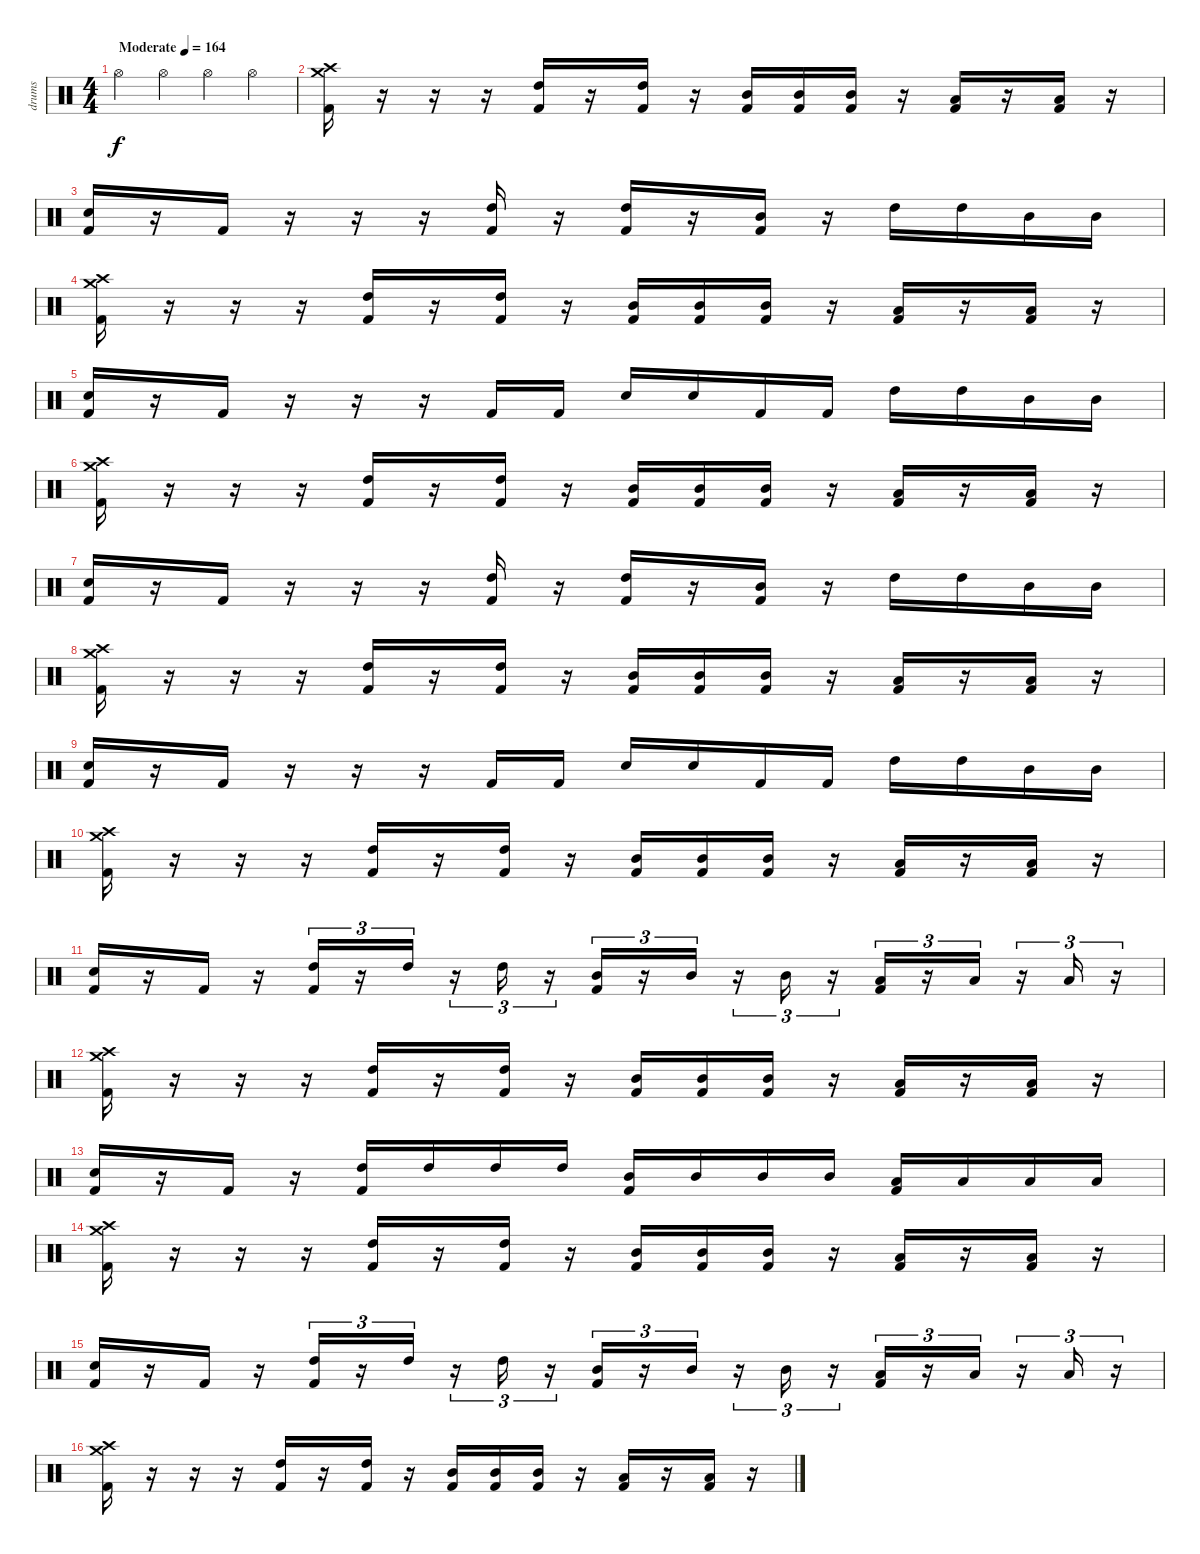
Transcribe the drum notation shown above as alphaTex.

\track ("drums" "drums") {instrument percussion}
\staff {score}
\articulation defaults
\ts (4 4)
\tempo (164 "Moderate")
\clef neutral
\ks c "Hi-Hat (open)".4{dy f} "Hi-Hat (open)".4 "Hi-Hat (open)".4 "Hi-Hat (open)".4
|
("Crash medium (hit)" "Crash high (hit)" "Kick (hit) 2").16 r.16 r.16 r.16 ("High Tom (hit)" "Kick (hit) 2").16 r.16 ("High Tom (hit)" "Kick (hit) 2").16 r.16 ("Mid Tom (hit)" "Kick (hit) 2").16 ("Mid Tom (hit)" "Kick (hit) 2").16 ("Mid Tom (hit)" "Kick (hit) 2").16 r.16 ("Low Floor Tom (hit)" "Kick (hit) 2").16 r.16 ("Low Floor Tom (hit)" "Kick (hit) 2").16 r.16 |
("Electric Snare (hit)" "Kick (hit) 2").16 r.16 "Kick (hit) 2".16 r.16 r.16 r.16 ("High Tom (hit)" "Kick (hit) 2").16 r.16 ("High Tom (hit)" "Kick (hit) 2").16 r.16 ("Mid Tom (hit)" "Kick (hit) 2").16 r.16 "High Tom (hit)".16 "High Tom (hit)".16 "Mid Tom (hit)".16 "Mid Tom (hit)".16 |
("Crash medium (hit)" "Crash high (hit)" "Kick (hit) 2").16 r.16 r.16 r.16 ("High Tom (hit)" "Kick (hit) 2").16 r.16 ("High Tom (hit)" "Kick (hit) 2").16 r.16 ("Mid Tom (hit)" "Kick (hit) 2").16 ("Mid Tom (hit)" "Kick (hit) 2").16 ("Mid Tom (hit)" "Kick (hit) 2").16 r.16 ("Low Floor Tom (hit)" "Kick (hit) 2").16 r.16 ("Low Floor Tom (hit)" "Kick (hit) 2").16 r.16 |
("Electric Snare (hit)" "Kick (hit) 2").16 r.16 "Kick (hit) 2".16 r.16 r.16 r.16 "Kick (hit) 2".16 "Kick (hit) 2".16 "Electric Snare (hit)".16 "Electric Snare (hit)".16 "Kick (hit) 2".16 "Kick (hit) 2".16 "High Tom (hit)".16 "High Tom (hit)".16 "Mid Tom (hit)".16 "Mid Tom (hit)".16 |
("Crash medium (hit)" "Crash high (hit)" "Kick (hit) 2").16 r.16 r.16 r.16 ("High Tom (hit)" "Kick (hit) 2").16 r.16 ("High Tom (hit)" "Kick (hit) 2").16 r.16 ("Mid Tom (hit)" "Kick (hit) 2").16 ("Mid Tom (hit)" "Kick (hit) 2").16 ("Mid Tom (hit)" "Kick (hit) 2").16 r.16 ("Low Floor Tom (hit)" "Kick (hit) 2").16 r.16 ("Low Floor Tom (hit)" "Kick (hit) 2").16 r.16 |
("Electric Snare (hit)" "Kick (hit) 2").16 r.16 "Kick (hit) 2".16 r.16 r.16 r.16 ("High Tom (hit)" "Kick (hit) 2").16 r.16 ("High Tom (hit)" "Kick (hit) 2").16 r.16 ("Mid Tom (hit)" "Kick (hit) 2").16 r.16 "High Tom (hit)".16 "High Tom (hit)".16 "Mid Tom (hit)".16 "Mid Tom (hit)".16 |
("Crash medium (hit)" "Crash high (hit)" "Kick (hit) 2").16 r.16 r.16 r.16 ("High Tom (hit)" "Kick (hit) 2").16 r.16 ("High Tom (hit)" "Kick (hit) 2").16 r.16 ("Mid Tom (hit)" "Kick (hit) 2").16 ("Mid Tom (hit)" "Kick (hit) 2").16 ("Mid Tom (hit)" "Kick (hit) 2").16 r.16 ("Low Floor Tom (hit)" "Kick (hit) 2").16 r.16 ("Low Floor Tom (hit)" "Kick (hit) 2").16 r.16 |
("Electric Snare (hit)" "Kick (hit) 2").16 r.16 "Kick (hit) 2".16 r.16 r.16 r.16 "Kick (hit) 2".16 "Kick (hit) 2".16 "Electric Snare (hit)".16 "Electric Snare (hit)".16 "Kick (hit) 2".16 "Kick (hit) 2".16 "High Tom (hit)".16 "High Tom (hit)".16 "Mid Tom (hit)".16 "Mid Tom (hit)".16 |
("Crash medium (hit)" "Crash high (hit)" "Kick (hit) 2").16 r.16 r.16 r.16 ("High Tom (hit)" "Kick (hit) 2").16 r.16 ("High Tom (hit)" "Kick (hit) 2").16 r.16 ("Mid Tom (hit)" "Kick (hit) 2").16 ("Mid Tom (hit)" "Kick (hit) 2").16 ("Mid Tom (hit)" "Kick (hit) 2").16 r.16 ("Low Floor Tom (hit)" "Kick (hit) 2").16 r.16 ("Low Floor Tom (hit)" "Kick (hit) 2").16 r.16 |
("Electric Snare (hit)" "Kick (hit) 2").16 r.16 "Kick (hit) 2".16 r.16 ("High Tom (hit)" "Kick (hit) 2").16{tu (3 2)} r.16{tu (3 2)} "High Tom (hit)".16{tu (3 2)} r.16{tu (3 2)} "High Tom (hit)".16{tu (3 2)} r.16{tu (3 2)} ("Mid Tom (hit)" "Kick (hit) 2").16{tu (3 2)} r.16{tu (3 2)} "Mid Tom (hit)".16{tu (3 2)} r.16{tu (3 2)} "Mid Tom (hit)".16{tu (3 2)} r.16{tu (3 2)} ("Low Floor Tom (hit)" "Kick (hit) 2").16{tu (3 2)} r.16{tu (3 2)} "Low Floor Tom (hit)".16{tu (3 2)} r.16{tu (3 2)} "Low Floor Tom (hit)".16{tu (3 2)} r.16{tu (3 2)} |
("Crash medium (hit)" "Crash high (hit)" "Kick (hit) 2").16 r.16 r.16 r.16 ("High Tom (hit)" "Kick (hit) 2").16 r.16 ("High Tom (hit)" "Kick (hit) 2").16 r.16 ("Mid Tom (hit)" "Kick (hit) 2").16 ("Mid Tom (hit)" "Kick (hit) 2").16 ("Mid Tom (hit)" "Kick (hit) 2").16 r.16 ("Low Floor Tom (hit)" "Kick (hit) 2").16 r.16 ("Low Floor Tom (hit)" "Kick (hit) 2").16 r.16 |
("Electric Snare (hit)" "Kick (hit) 2").16 r.16 "Kick (hit) 2".16 r.16 ("High Tom (hit)" "Kick (hit) 2").16 "High Tom (hit)".16 "High Tom (hit)".16 "High Tom (hit)".16 ("Mid Tom (hit)" "Kick (hit) 2").16 "Mid Tom (hit)".16 "Mid Tom (hit)".16 "Mid Tom (hit)".16 ("Low Floor Tom (hit)" "Kick (hit) 2").16 "Low Floor Tom (hit)".16 "Low Floor Tom (hit)".16 "Low Floor Tom (hit)".16 |
("Crash medium (hit)" "Crash high (hit)" "Kick (hit) 2").16 r.16 r.16 r.16 ("High Tom (hit)" "Kick (hit) 2").16 r.16 ("High Tom (hit)" "Kick (hit) 2").16 r.16 ("Mid Tom (hit)" "Kick (hit) 2").16 ("Mid Tom (hit)" "Kick (hit) 2").16 ("Mid Tom (hit)" "Kick (hit) 2").16 r.16 ("Low Floor Tom (hit)" "Kick (hit) 2").16 r.16 ("Low Floor Tom (hit)" "Kick (hit) 2").16 r.16 |
("Electric Snare (hit)" "Kick (hit) 2").16 r.16 "Kick (hit) 2".16 r.16 ("High Tom (hit)" "Kick (hit) 2").16{tu (3 2)} r.16{tu (3 2)} "High Tom (hit)".16{tu (3 2)} r.16{tu (3 2)} "High Tom (hit)".16{tu (3 2)} r.16{tu (3 2)} ("Mid Tom (hit)" "Kick (hit) 2").16{tu (3 2)} r.16{tu (3 2)} "Mid Tom (hit)".16{tu (3 2)} r.16{tu (3 2)} "Mid Tom (hit)".16{tu (3 2)} r.16{tu (3 2)} ("Low Floor Tom (hit)" "Kick (hit) 2").16{tu (3 2)} r.16{tu (3 2)} "Low Floor Tom (hit)".16{tu (3 2)} r.16{tu (3 2)} "Low Floor Tom (hit)".16{tu (3 2)} r.16{tu (3 2)} |
("Crash medium (hit)" "Crash high (hit)" "Kick (hit) 2").16 r.16 r.16 r.16 ("High Tom (hit)" "Kick (hit) 2").16 r.16 ("High Tom (hit)" "Kick (hit) 2").16 r.16 ("Mid Tom (hit)" "Kick (hit) 2").16 ("Mid Tom (hit)" "Kick (hit) 2").16 ("Mid Tom (hit)" "Kick (hit) 2").16 r.16 ("Low Floor Tom (hit)" "Kick (hit) 2").16 r.16 ("Low Floor Tom (hit)" "Kick (hit) 2").16 r.16
